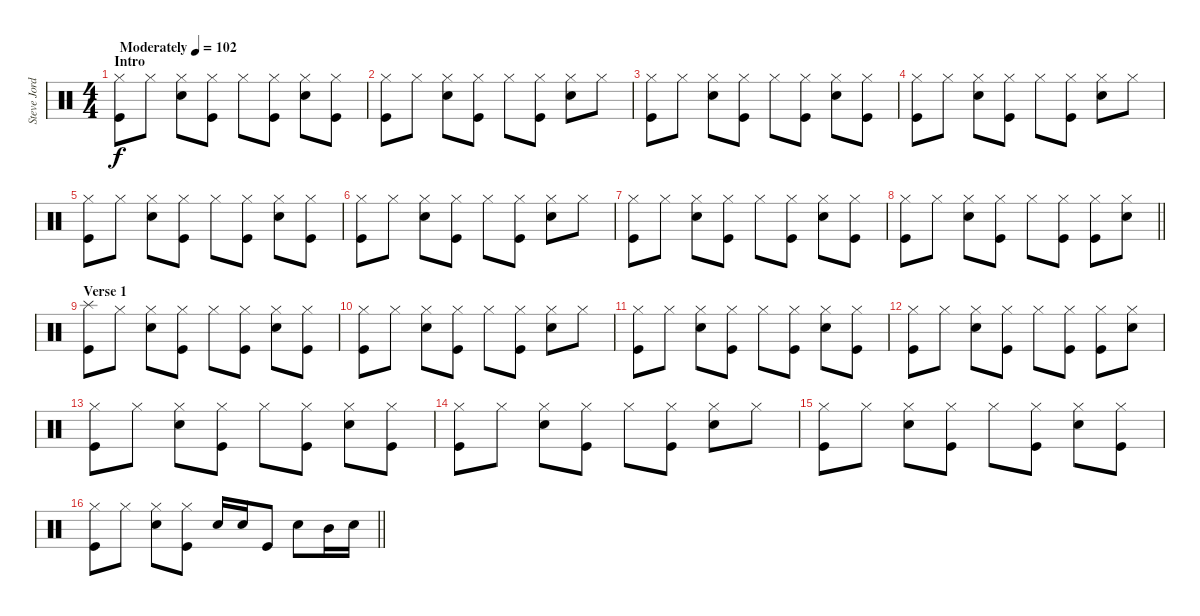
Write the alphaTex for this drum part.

\track ("Steve Jordan (Drums)" "Steve Jord") {instrument percussion}
\staff {score}
\articulation defaults
\ts (4 4)
\section ("" "Intro")
\tempo (102 "Moderately")
\clef neutral
\ks c
("Hi-Hat (closed)" "Kick (hit)").8{dy f} "Hi-Hat (closed)".8 ("Hi-Hat (closed)" "Snare (hit) 2").8 ("Hi-Hat (closed)" "Kick (hit)").8 "Hi-Hat (closed)".8 ("Hi-Hat (closed)" "Kick (hit)").8 ("Hi-Hat (closed)" "Snare (hit) 2").8 ("Hi-Hat (closed)" "Kick (hit)").8 |
("Hi-Hat (closed)" "Kick (hit)").8 "Hi-Hat (closed)".8 ("Hi-Hat (closed)" "Snare (hit) 2").8 ("Hi-Hat (closed)" "Kick (hit)").8 "Hi-Hat (closed)".8 ("Hi-Hat (closed)" "Kick (hit)").8 ("Hi-Hat (closed)" "Snare (hit) 2").8 "Hi-Hat (closed)".8 |
("Hi-Hat (closed)" "Kick (hit)").8 "Hi-Hat (closed)".8 ("Hi-Hat (closed)" "Snare (hit) 2").8 ("Hi-Hat (closed)" "Kick (hit)").8 "Hi-Hat (closed)".8 ("Hi-Hat (closed)" "Kick (hit)").8 ("Hi-Hat (closed)" "Snare (hit) 2").8 ("Hi-Hat (closed)" "Kick (hit)").8 |
("Hi-Hat (closed)" "Kick (hit)").8 "Hi-Hat (closed)".8 ("Hi-Hat (closed)" "Snare (hit) 2").8 ("Hi-Hat (closed)" "Kick (hit)").8 "Hi-Hat (closed)".8 ("Hi-Hat (closed)" "Kick (hit)").8 ("Hi-Hat (closed)" "Snare (hit) 2").8 "Hi-Hat (closed)".8 |
("Hi-Hat (closed)" "Kick (hit)").8 "Hi-Hat (closed)".8 ("Hi-Hat (closed)" "Snare (hit) 2").8 ("Hi-Hat (closed)" "Kick (hit)").8 "Hi-Hat (closed)".8 ("Hi-Hat (closed)" "Kick (hit)").8 ("Hi-Hat (closed)" "Snare (hit) 2").8 ("Hi-Hat (closed)" "Kick (hit)").8 |
("Hi-Hat (closed)" "Kick (hit)").8 "Hi-Hat (closed)".8 ("Hi-Hat (closed)" "Snare (hit) 2").8 ("Hi-Hat (closed)" "Kick (hit)").8 "Hi-Hat (closed)".8 ("Hi-Hat (closed)" "Kick (hit)").8 ("Hi-Hat (closed)" "Snare (hit) 2").8 "Hi-Hat (closed)".8 |
("Hi-Hat (closed)" "Kick (hit)").8 "Hi-Hat (closed)".8 ("Hi-Hat (closed)" "Snare (hit) 2").8 ("Hi-Hat (closed)" "Kick (hit)").8 "Hi-Hat (closed)".8 ("Hi-Hat (closed)" "Kick (hit)").8 ("Hi-Hat (closed)" "Snare (hit) 2").8 ("Hi-Hat (closed)" "Kick (hit)").8 |
\barLineRight lightlight
("Hi-Hat (closed)" "Kick (hit)").8 "Hi-Hat (closed)".8 ("Hi-Hat (closed)" "Snare (hit) 2").8 ("Hi-Hat (closed)" "Kick (hit)").8 "Hi-Hat (closed)".8 ("Hi-Hat (closed)" "Kick (hit)").8 ("Hi-Hat (closed)" "Kick (hit)").8 ("Hi-Hat (closed)" "Snare (hit) 2").8 |
\section ("" "Verse 1")
("Splash (hit)" "Kick (hit)").8 "Hi-Hat (closed)".8 ("Hi-Hat (closed)" "Snare (hit) 2").8 ("Hi-Hat (closed)" "Kick (hit)").8 "Hi-Hat (closed)".8 ("Hi-Hat (closed)" "Kick (hit)").8 ("Hi-Hat (closed)" "Snare (hit) 2").8 ("Hi-Hat (closed)" "Kick (hit)").8 |
("Hi-Hat (closed)" "Kick (hit)").8 "Hi-Hat (closed)".8 ("Hi-Hat (closed)" "Snare (hit) 2").8 ("Hi-Hat (closed)" "Kick (hit)").8 "Hi-Hat (closed)".8 ("Hi-Hat (closed)" "Kick (hit)").8 ("Hi-Hat (closed)" "Snare (hit) 2").8 "Hi-Hat (closed)".8 |
("Hi-Hat (closed)" "Kick (hit)").8 "Hi-Hat (closed)".8 ("Hi-Hat (closed)" "Snare (hit) 2").8 ("Hi-Hat (closed)" "Kick (hit)").8 "Hi-Hat (closed)".8 ("Hi-Hat (closed)" "Kick (hit)").8 ("Hi-Hat (closed)" "Snare (hit) 2").8 ("Hi-Hat (closed)" "Kick (hit)").8 |
("Hi-Hat (closed)" "Kick (hit)").8 "Hi-Hat (closed)".8 ("Hi-Hat (closed)" "Snare (hit) 2").8 ("Hi-Hat (closed)" "Kick (hit)").8 "Hi-Hat (closed)".8 ("Hi-Hat (closed)" "Kick (hit)").8 ("Hi-Hat (closed)" "Kick (hit)").8 ("Hi-Hat (closed)" "Snare (hit) 2").8 |
("Hi-Hat (closed)" "Kick (hit)").8 "Hi-Hat (closed)".8 ("Hi-Hat (closed)" "Snare (hit) 2").8 ("Hi-Hat (closed)" "Kick (hit)").8 "Hi-Hat (closed)".8 ("Hi-Hat (closed)" "Kick (hit)").8 ("Hi-Hat (closed)" "Snare (hit) 2").8 ("Hi-Hat (closed)" "Kick (hit)").8 |
("Hi-Hat (closed)" "Kick (hit)").8 "Hi-Hat (closed)".8 ("Hi-Hat (closed)" "Snare (hit) 2").8 ("Hi-Hat (closed)" "Kick (hit)").8 "Hi-Hat (closed)".8 ("Hi-Hat (closed)" "Kick (hit)").8 ("Hi-Hat (closed)" "Snare (hit) 2").8 "Hi-Hat (closed)".8 |
("Hi-Hat (closed)" "Kick (hit)").8 "Hi-Hat (closed)".8 ("Hi-Hat (closed)" "Snare (hit) 2").8 ("Hi-Hat (closed)" "Kick (hit)").8 "Hi-Hat (closed)".8 ("Hi-Hat (closed)" "Kick (hit)").8 ("Hi-Hat (closed)" "Snare (hit) 2").8 ("Hi-Hat (closed)" "Kick (hit)").8 |
\barLineRight lightlight
("Hi-Hat (closed)" "Kick (hit)").8 "Hi-Hat (closed)".8 ("Hi-Hat (closed)" "Snare (hit) 2").8 ("Hi-Hat (closed)" "Kick (hit)").8 "Snare (hit) 2".16 "Snare (hit) 2".16 "Kick (hit)".8 "Snare (hit) 2".8 "Mid Tom (hit)".16 "Snare (hit) 2".16
